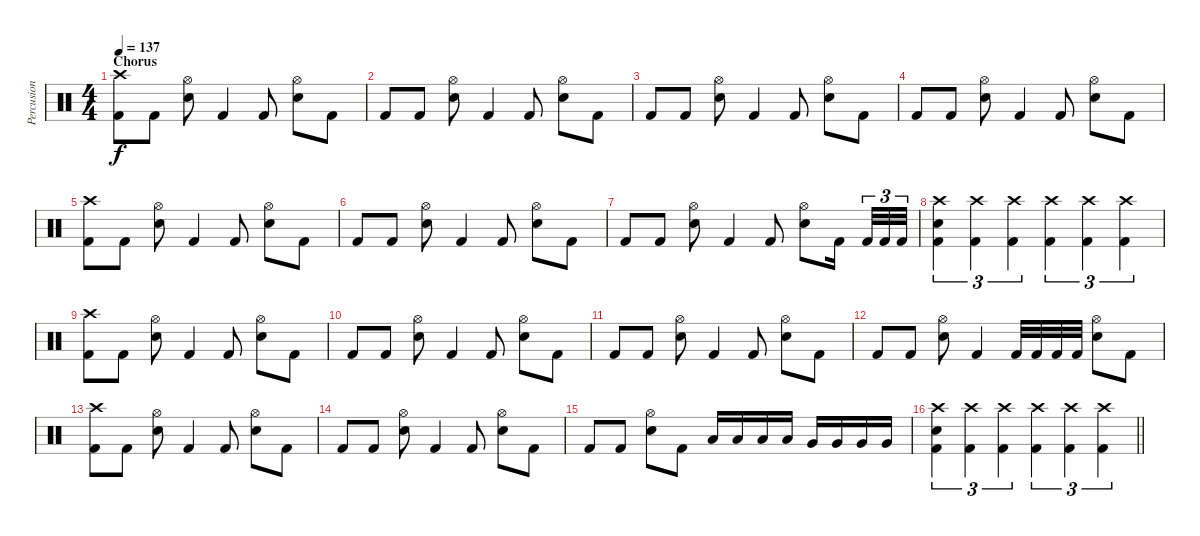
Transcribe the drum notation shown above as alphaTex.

\track ("Percusion" "Percusion") {instrument percussion}
\staff {score}
\articulation defaults
\ts (4 4)
\section ("" "Chorus")
\tempo 137
\clef neutral
\ks c
("Crash high (hit)" "Kick (hit) 2").8{dy f} "Kick (hit) 2".8 ("Hi-Hat (open)" "Snare (hit) 2").8 "Kick (hit) 2".4 "Kick (hit) 2".8 ("Hi-Hat (open)" "Snare (hit) 2").8 "Kick (hit) 2".8 |
"Kick (hit) 2".8 "Kick (hit) 2".8 ("Hi-Hat (open)" "Snare (hit) 2").8 "Kick (hit) 2".4 "Kick (hit) 2".8 ("Hi-Hat (open)" "Snare (hit) 2").8 "Kick (hit) 2".8 |
"Kick (hit) 2".8 "Kick (hit) 2".8 ("Hi-Hat (open)" "Snare (hit) 2").8 "Kick (hit) 2".4 "Kick (hit) 2".8 ("Hi-Hat (open)" "Snare (hit) 2").8 "Kick (hit) 2".8 |
"Kick (hit) 2".8 "Kick (hit) 2".8 ("Hi-Hat (open)" "Snare (hit) 2").8 "Kick (hit) 2".4 "Kick (hit) 2".8 ("Hi-Hat (open)" "Snare (hit) 2").8 "Kick (hit) 2".8 |
("Crash high (hit)" "Kick (hit) 2").8 "Kick (hit) 2".8 ("Hi-Hat (open)" "Snare (hit) 2").8 "Kick (hit) 2".4 "Kick (hit) 2".8 ("Hi-Hat (open)" "Snare (hit) 2").8 "Kick (hit) 2".8 |
"Kick (hit) 2".8 "Kick (hit) 2".8 ("Hi-Hat (open)" "Snare (hit) 2").8 "Kick (hit) 2".4 "Kick (hit) 2".8 ("Hi-Hat (open)" "Snare (hit) 2").8 "Kick (hit) 2".8 |
"Kick (hit) 2".8 "Kick (hit) 2".8 ("Hi-Hat (open)" "Snare (hit) 2").8 "Kick (hit) 2".4 "Kick (hit) 2".8 ("Hi-Hat (open)" "Snare (hit) 2").8 "Kick (hit) 2".16{beam splitsecondary} "Kick (hit) 2".32{tu (3 2)} "Kick (hit) 2".32{tu (3 2)} "Kick (hit) 2".32{tu (3 2)} |
("Crash high (hit)" "Snare (hit) 2" "Kick (hit) 2").4{tu (3 2)} ("Crash high (hit)" "Kick (hit) 2").4{tu (3 2)} ("Crash high (hit)" "Kick (hit) 2").4{tu (3 2)} ("Crash high (hit)" "Kick (hit) 2").4{tu (3 2)} ("Crash high (hit)" "Kick (hit) 2").4{tu (3 2)} ("Crash high (hit)" "Kick (hit) 2").4{tu (3 2)} |
("Crash high (hit)" "Kick (hit) 2").8 "Kick (hit) 2".8 ("Hi-Hat (open)" "Snare (hit) 2").8 "Kick (hit) 2".4 "Kick (hit) 2".8 ("Hi-Hat (open)" "Snare (hit) 2").8 "Kick (hit) 2".8 |
"Kick (hit) 2".8 "Kick (hit) 2".8 ("Hi-Hat (open)" "Snare (hit) 2").8 "Kick (hit) 2".4 "Kick (hit) 2".8 ("Hi-Hat (open)" "Snare (hit) 2").8 "Kick (hit) 2".8 |
"Kick (hit) 2".8 "Kick (hit) 2".8 ("Hi-Hat (open)" "Snare (hit) 2").8 "Kick (hit) 2".4 "Kick (hit) 2".8 ("Hi-Hat (open)" "Snare (hit) 2").8 "Kick (hit) 2".8 |
"Kick (hit) 2".8 "Kick (hit) 2".8 ("Hi-Hat (open)" "Snare (hit) 2").8 "Kick (hit) 2".4 "Kick (hit) 2".32 "Kick (hit) 2".32 "Kick (hit) 2".32 "Kick (hit) 2".32 ("Hi-Hat (open)" "Snare (hit) 2").8 "Kick (hit) 2".8 |
("Crash high (hit)" "Kick (hit) 2").8 "Kick (hit) 2".8 ("Hi-Hat (open)" "Snare (hit) 2").8 "Kick (hit) 2".4 "Kick (hit) 2".8 ("Hi-Hat (open)" "Snare (hit) 2").8 "Kick (hit) 2".8 |
"Kick (hit) 2".8 "Kick (hit) 2".8 ("Hi-Hat (open)" "Snare (hit) 2").8 "Kick (hit) 2".4 "Kick (hit) 2".8 ("Hi-Hat (open)" "Snare (hit) 2").8 "Kick (hit) 2".8 |
"Kick (hit) 2".8 "Kick (hit) 2".8 ("Hi-Hat (open)" "Snare (hit) 2").8 "Kick (hit) 2".8 "Low Tom (hit)".16 "Low Tom (hit)".16 "Low Tom (hit)".16 "Low Tom (hit)".16 "Very Low Tom (hit)".16 "Very Low Tom (hit)".16 "Very Low Tom (hit)".16 "Very Low Tom (hit)".16 |
\barLineRight lightlight
("Crash high (hit)" "Snare (hit) 2" "Kick (hit) 2").4{tu (3 2)} ("Crash high (hit)" "Kick (hit) 2").4{tu (3 2)} ("Crash high (hit)" "Kick (hit) 2").4{tu (3 2)} ("Crash high (hit)" "Kick (hit) 2").4{tu (3 2)} ("Crash high (hit)" "Kick (hit) 2").4{tu (3 2)} ("Crash high (hit)" "Kick (hit) 2").4{tu (3 2)}
